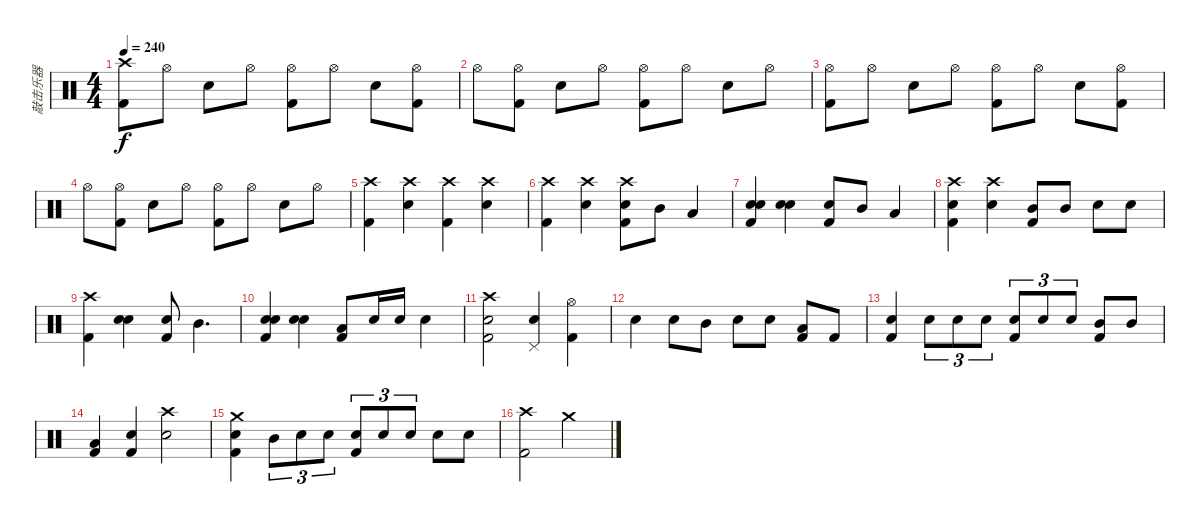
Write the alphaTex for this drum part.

\track ("敲击乐器" "敲击乐器") {instrument percussion}
\staff {score}
\articulation defaults
\ts (4 4)
\tempo 240
\clef neutral
\ks c
("Crash high (hit)" "Kick (hit) 2").8{dy f} "Hi-Hat (open)".8 "Electric Snare (hit)".8 "Hi-Hat (open)".8 ("Hi-Hat (open)" "Kick (hit) 2").8 "Hi-Hat (open)".8 "Electric Snare (hit)".8 ("Hi-Hat (open)" "Kick (hit) 2").8 |
"Hi-Hat (open)".8 ("Hi-Hat (open)" "Kick (hit) 2").8 "Electric Snare (hit)".8 "Hi-Hat (open)".8 ("Hi-Hat (open)" "Kick (hit) 2").8 "Hi-Hat (open)".8 "Electric Snare (hit)".8 "Hi-Hat (open)".8 |
("Hi-Hat (open)" "Kick (hit) 2").8 "Hi-Hat (open)".8 "Electric Snare (hit)".8 "Hi-Hat (open)".8 ("Hi-Hat (open)" "Kick (hit) 2").8 "Hi-Hat (open)".8 "Electric Snare (hit)".8 ("Hi-Hat (open)" "Kick (hit) 2").8 |
"Hi-Hat (open)".8 ("Hi-Hat (open)" "Kick (hit) 2").8 "Electric Snare (hit)".8 "Hi-Hat (open)".8 ("Hi-Hat (open)" "Kick (hit) 2").8 "Hi-Hat (open)".8 "Electric Snare (hit)".8 "Hi-Hat (open)".8 |
("Crash high (hit)" "Kick (hit) 2").4 ("Crash high (hit)" "Electric Snare (hit)").4 ("Crash high (hit)" "Kick (hit) 2").4 ("Crash high (hit)" "Electric Snare (hit)").4 |
("Crash high (hit)" "Kick (hit) 2").4 ("Crash high (hit)" "Electric Snare (hit)").4 ("Crash high (hit)" "Electric Snare (hit)" "Kick (hit) 2").8 "Mid Tom (hit)".8 "Low Tom (hit)".4 |
("Electric Snare (hit)" "Snare (hit) 2" "Kick (hit) 2").4 ("Electric Snare (hit)" "Snare (hit) 2").4 ("Electric Snare (hit)" "Kick (hit) 2").8 "Mid Tom (hit)".8 "Low Tom (hit)".4 |
("Crash high (hit)" "Electric Snare (hit)" "Kick (hit) 2").4 ("Crash high (hit)" "Electric Snare (hit)").4 ("Mid Tom (hit)" "Kick (hit) 2").8 "Mid Tom (hit)".8 "Snare (hit) 2".8 "Snare (hit) 2".8 |
("Crash high (hit)" "Kick (hit) 2").4 ("Electric Snare (hit)" "Snare (hit) 2").4 ("Electric Snare (hit)" "Kick (hit) 2").8 "Mid Tom (hit)".4{d} |
("Electric Snare (hit)" "Snare (hit) 2" "Kick (hit) 2").4 ("Electric Snare (hit)" "Snare (hit) 2").4 ("Low Tom (hit)" "Kick (hit) 2").8 "Electric Snare (hit)".16 "Electric Snare (hit)".16 "Electric Snare (hit)".4 |
("Crash high (hit)" "Electric Snare (hit)" "Kick (hit) 2").2 ("Pedal Hi-Hat (hit)" "Electric Snare (hit)").4 ("Hi-Hat (open)" "Kick (hit) 2").4 |
"Electric Snare (hit)".4 "Electric Snare (hit)".8 "Mid Tom (hit)".8 "Electric Snare (hit)".8 "Electric Snare (hit)".8 ("Low Tom (hit)" "Kick (hit) 2").8 "Kick (hit) 2".8 |
("Electric Snare (hit)" "Kick (hit) 2").4 "Electric Snare (hit)".8{tu (3 2)} "Electric Snare (hit)".8{tu (3 2)} "Electric Snare (hit)".8{tu (3 2)} ("Electric Snare (hit)" "Kick (hit) 2").8{tu (3 2)} "Electric Snare (hit)".8{tu (3 2)} "Electric Snare (hit)".8{tu (3 2)} ("Mid Tom (hit)" "Kick (hit) 2").8 "Mid Tom (hit)".8 |
("Low Tom (hit)" "Kick (hit) 2").4 ("Snare (hit) 2" "Kick (hit) 2").4 ("Crash high (hit)" "Electric Snare (hit)").2 |
("Crash medium (hit)" "Electric Snare (hit)" "Kick (hit) 2").4 "Mid Tom (hit)".8{tu (3 2)} "Electric Snare (hit)".8{tu (3 2)} "Electric Snare (hit)".8{tu (3 2)} ("Snare (hit) 2" "Kick (hit) 2").8{tu (3 2)} "Electric Snare (hit)".8{tu (3 2)} "Electric Snare (hit)".8{tu (3 2)} "Electric Snare (hit)".8 "Electric Snare (hit)".8 |
("Crash high (hit)" "Kick (hit) 2").2 "Crash medium (hit)".2
